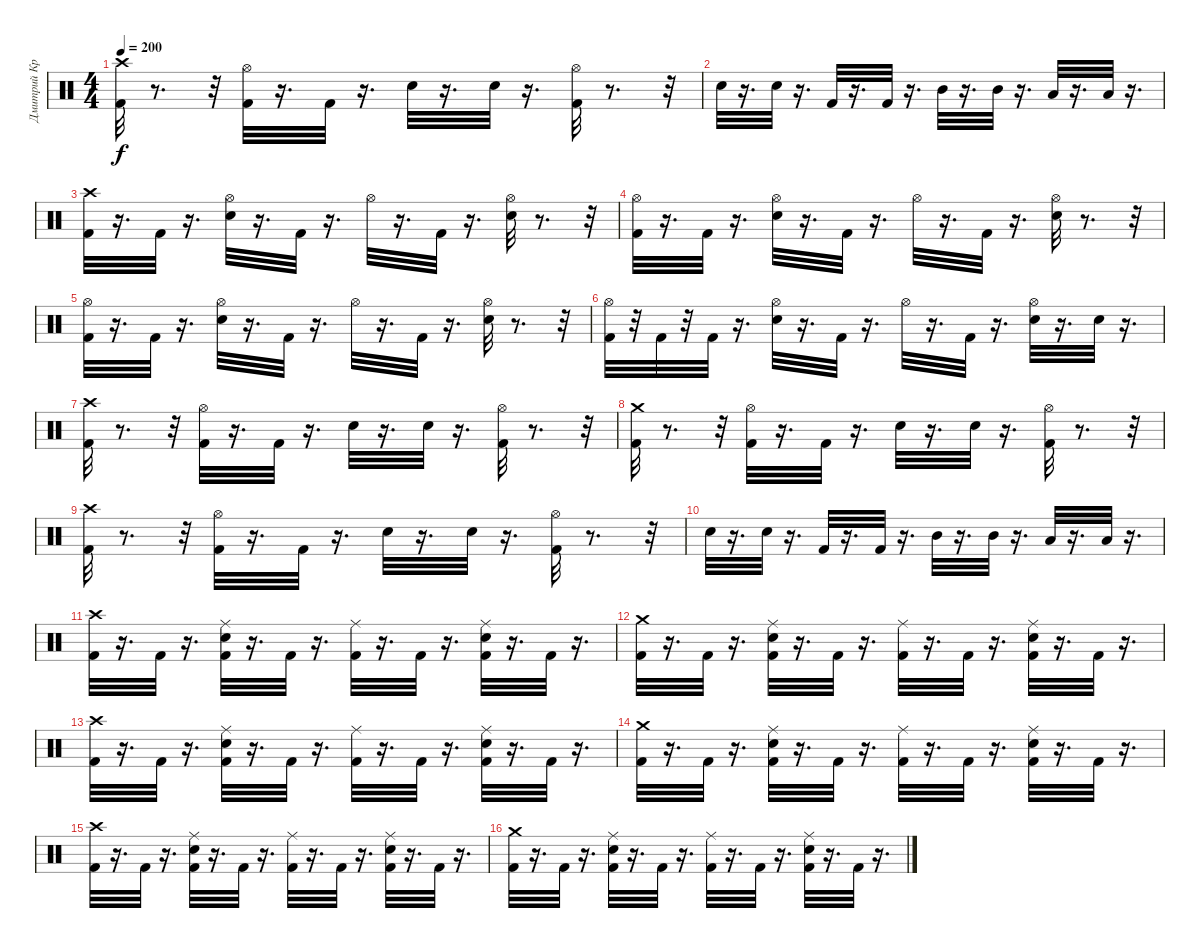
\track ("Дмитрий Кривенков" "Дмитрий Кр") {instrument percussion}
\staff {score}
\articulation defaults
\ts (4 4)
\tempo 200
\clef neutral
\ks c
("Crash high (hit)" "Kick (hit) 2").32{dy f} r.8{d} r.32 ("Hi-Hat (open)" "Kick (hit) 2").32 r.16{d} "Kick (hit) 2".32 r.16{d} "Electric Snare (hit)".32 r.16{d} "Electric Snare (hit)".32 r.16{d} ("Hi-Hat (open)" "Kick (hit) 2").32 r.8{d} r.32 |
"Electric Snare (hit)".32 r.16{d} "Electric Snare (hit)".32 r.16{d} "Kick (hit) 2".32 r.16{d} "Kick (hit) 2".32 r.16{d} "Mid Tom (hit)".32 r.16{d} "Mid Tom (hit)".32 r.16{d} "Low Tom (hit)".32 r.16{d} "Low Tom (hit)".32 r.16{d} |
("Crash high (hit)" "Kick (hit) 2").32 r.16{d} "Kick (hit) 2".32 r.16{d} ("Hi-Hat (open)" "Electric Snare (hit)").32 r.16{d} "Kick (hit) 2".32 r.16{d} "Hi-Hat (open)".32 r.16{d} "Kick (hit) 2".32 r.16{d} ("Hi-Hat (open)" "Electric Snare (hit)").32 r.8{d} r.32 |
("Hi-Hat (open)" "Kick (hit) 2").32 r.16{d} "Kick (hit) 2".32 r.16{d} ("Hi-Hat (open)" "Electric Snare (hit)").32 r.16{d} "Kick (hit) 2".32 r.16{d} "Hi-Hat (open)".32 r.16{d} "Kick (hit) 2".32 r.16{d} ("Hi-Hat (open)" "Electric Snare (hit)").32 r.8{d} r.32 |
("Hi-Hat (open)" "Kick (hit) 2").32 r.16{d} "Kick (hit) 2".32 r.16{d} ("Hi-Hat (open)" "Electric Snare (hit)").32 r.16{d} "Kick (hit) 2".32 r.16{d} "Hi-Hat (open)".32 r.16{d} "Kick (hit) 2".32 r.16{d} ("Hi-Hat (open)" "Electric Snare (hit)").32 r.8{d} r.32 |
("Hi-Hat (open)" "Kick (hit) 2").32 r.32 "Kick (hit) 2".32 r.32 "Kick (hit) 2".32 r.16{d} ("Hi-Hat (open)" "Electric Snare (hit)").32 r.16{d} "Kick (hit) 2".32 r.16{d} "Hi-Hat (open)".32 r.16{d} "Kick (hit) 2".32 r.16{d} ("Hi-Hat (open)" "Electric Snare (hit)").32 r.16{d} "Electric Snare (hit)".32 r.16{d} |
("Crash high (hit)" "Kick (hit) 2").32 r.8{d} r.32 ("Hi-Hat (open)" "Kick (hit) 2").32 r.16{d} "Kick (hit) 2".32 r.16{d} "Electric Snare (hit)".32 r.16{d} "Electric Snare (hit)".32 r.16{d} ("Kick (hit) 2" "Hi-Hat (open)").32 r.8{d} r.32 |
("Crash medium (hit)" "Kick (hit) 2").32 r.8{d} r.32 ("Hi-Hat (open)" "Kick (hit) 2").32 r.16{d} "Kick (hit) 2".32 r.16{d} "Electric Snare (hit)".32 r.16{d} "Electric Snare (hit)".32 r.16{d} ("Hi-Hat (open)" "Kick (hit) 2").32 r.8{d} r.32 |
("Crash high (hit)" "Kick (hit) 2").32 r.8{d} r.32 ("Hi-Hat (open)" "Kick (hit) 2").32 r.16{d} "Kick (hit) 2".32 r.16{d} "Electric Snare (hit)".32 r.16{d} "Electric Snare (hit)".32 r.16{d} ("Hi-Hat (open)" "Kick (hit) 2").32 r.8{d} r.32 |
"Electric Snare (hit)".32 r.16{d} "Electric Snare (hit)".32 r.16{d} "Kick (hit) 2".32 r.16{d} "Kick (hit) 2".32 r.16{d} "Mid Tom (hit)".32 r.16{d} "Mid Tom (hit)".32 r.16{d} "Low Tom (hit)".32 r.16{d} "Low Tom (hit)".32 r.16{d} |
("Crash high (hit)" "Kick (hit) 2").32 r.16{d} "Kick (hit) 2".32 r.16{d} ("Electric Snare (hit)" "Ride (middle)" "Kick (hit) 2").32 r.16{d} "Kick (hit) 2".32 r.16{d} ("Ride (middle)" "Kick (hit) 2").32 r.16{d} "Kick (hit) 2".32 r.16{d} ("Electric Snare (hit)" "Ride (middle)" "Kick (hit) 2").32 r.16{d} "Kick (hit) 2".32 r.16{d} |
("Kick (hit) 2" "Crash medium (hit)").32 r.16{d} "Kick (hit) 2".32 r.16{d} ("Kick (hit) 2" "Electric Snare (hit)" "Ride (middle)").32 r.16{d} "Kick (hit) 2".32 r.16{d} ("Kick (hit) 2" "Ride (middle)").32 r.16{d} "Kick (hit) 2".32 r.16{d} ("Kick (hit) 2" "Electric Snare (hit)" "Ride (middle)").32 r.16{d} "Kick (hit) 2".32 r.16{d} |
("Crash high (hit)" "Kick (hit) 2").32 r.16{d} "Kick (hit) 2".32 r.16{d} ("Electric Snare (hit)" "Ride (middle)" "Kick (hit) 2").32 r.16{d} "Kick (hit) 2".32 r.16{d} ("Ride (middle)" "Kick (hit) 2").32 r.16{d} "Kick (hit) 2".32 r.16{d} ("Electric Snare (hit)" "Ride (middle)" "Kick (hit) 2").32 r.16{d} "Kick (hit) 2".32 r.16{d} |
("Kick (hit) 2" "Crash medium (hit)").32 r.16{d} "Kick (hit) 2".32 r.16{d} ("Kick (hit) 2" "Electric Snare (hit)" "Ride (middle)").32 r.16{d} "Kick (hit) 2".32 r.16{d} ("Kick (hit) 2" "Ride (middle)").32 r.16{d} "Kick (hit) 2".32 r.16{d} ("Kick (hit) 2" "Electric Snare (hit)" "Ride (middle)").32 r.16{d} "Kick (hit) 2".32 r.16{d} |
("Crash high (hit)" "Kick (hit) 2").32 r.16{d} "Kick (hit) 2".32 r.16{d} ("Electric Snare (hit)" "Ride (middle)" "Kick (hit) 2").32 r.16{d} "Kick (hit) 2".32 r.16{d} ("Ride (middle)" "Kick (hit) 2").32 r.16{d} "Kick (hit) 2".32 r.16{d} ("Electric Snare (hit)" "Ride (middle)" "Kick (hit) 2").32 r.16{d} "Kick (hit) 2".32 r.16{d} |
("Kick (hit) 2" "Crash medium (hit)").32 r.16{d} "Kick (hit) 2".32 r.16{d} ("Kick (hit) 2" "Electric Snare (hit)" "Ride (middle)").32 r.16{d} "Kick (hit) 2".32 r.16{d} ("Kick (hit) 2" "Ride (middle)").32 r.16{d} "Kick (hit) 2".32 r.16{d} ("Kick (hit) 2" "Electric Snare (hit)" "Ride (middle)").32 r.16{d} "Kick (hit) 2".32 r.16{d}
